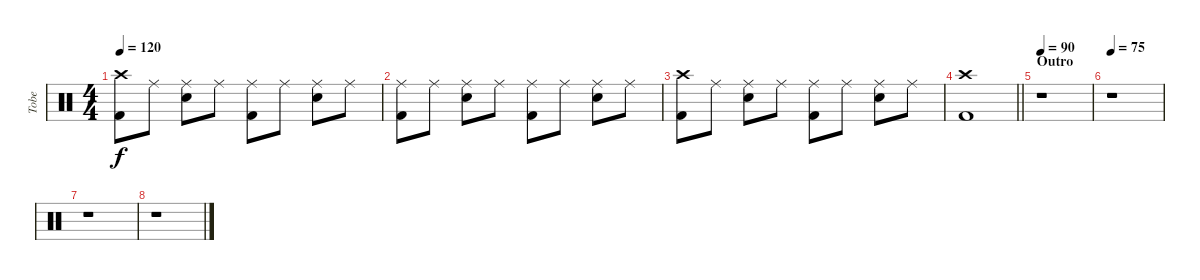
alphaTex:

\track ("Tobe" "Tobe") {instrument percussion}
\staff {score}
\articulation defaults
\ts (4 4)
\tempo 120
\clef neutral
\ks c
("Crash high (hit)" "Kick (hit) 2").8{dy f} "Ride (middle)".8 ("Ride (middle)" "Snare (hit) 2").8 "Ride (middle)".8 ("Ride (middle)" "Kick (hit) 2").8 "Ride (middle)".8 ("Ride (middle)" "Snare (hit) 2").8 "Ride (middle)".8 |
("Ride (middle)" "Kick (hit) 2").8 "Ride (middle)".8 ("Ride (middle)" "Snare (hit) 2").8 "Ride (middle)".8 ("Ride (middle)" "Kick (hit) 2").8 "Ride (middle)".8 ("Ride (middle)" "Snare (hit) 2").8 "Ride (middle)".8 |
("Crash high (hit)" "Kick (hit) 2").8 "Ride (middle)".8 ("Ride (middle)" "Snare (hit) 2").8 "Ride (middle)".8 ("Ride (middle)" "Kick (hit) 2").8 "Ride (middle)".8 ("Ride (middle)" "Snare (hit) 2").8 "Ride (middle)".8 |
\barLineRight lightlight
("Crash high (hit)" "Kick (hit) 2").1 |
\section ("" "Outro")
\tempo 90
r.1 |
\tempo 75
r.1 |
r.1 |
r.1
